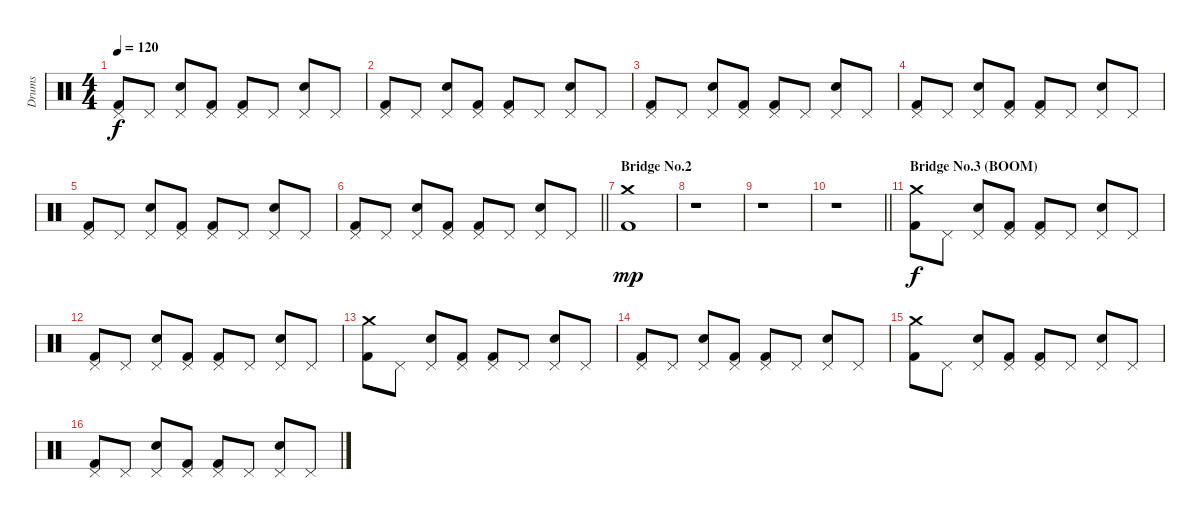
\track ("Drums" "Drums") {instrument percussion}
\staff {score}
\articulation defaults
\ts (4 4)
\tempo 120
\clef neutral
\ks c
("Pedal Hi-Hat (hit)" "Kick (hit) 2").8{dy f} "Pedal Hi-Hat (hit)".8 ("Pedal Hi-Hat (hit)" "Electric Snare (hit)").8 ("Pedal Hi-Hat (hit)" "Kick (hit) 2").8 ("Pedal Hi-Hat (hit)" "Kick (hit) 2").8 "Pedal Hi-Hat (hit)".8 ("Pedal Hi-Hat (hit)" "Electric Snare (hit)").8 "Pedal Hi-Hat (hit)".8 |
("Pedal Hi-Hat (hit)" "Kick (hit) 2").8 "Pedal Hi-Hat (hit)".8 ("Pedal Hi-Hat (hit)" "Electric Snare (hit)").8 ("Pedal Hi-Hat (hit)" "Kick (hit) 2").8 ("Pedal Hi-Hat (hit)" "Kick (hit) 2").8 "Pedal Hi-Hat (hit)".8 ("Pedal Hi-Hat (hit)" "Electric Snare (hit)").8 "Pedal Hi-Hat (hit)".8 |
("Pedal Hi-Hat (hit)" "Kick (hit) 2").8 "Pedal Hi-Hat (hit)".8 ("Pedal Hi-Hat (hit)" "Electric Snare (hit)").8 ("Pedal Hi-Hat (hit)" "Kick (hit) 2").8 ("Pedal Hi-Hat (hit)" "Kick (hit) 2").8 "Pedal Hi-Hat (hit)".8 ("Pedal Hi-Hat (hit)" "Electric Snare (hit)").8 "Pedal Hi-Hat (hit)".8 |
("Pedal Hi-Hat (hit)" "Kick (hit) 2").8 "Pedal Hi-Hat (hit)".8 ("Pedal Hi-Hat (hit)" "Electric Snare (hit)").8 ("Pedal Hi-Hat (hit)" "Kick (hit) 2").8 ("Pedal Hi-Hat (hit)" "Kick (hit) 2").8 "Pedal Hi-Hat (hit)".8 ("Pedal Hi-Hat (hit)" "Electric Snare (hit)").8 "Pedal Hi-Hat (hit)".8 |
("Pedal Hi-Hat (hit)" "Kick (hit) 2").8 "Pedal Hi-Hat (hit)".8 ("Pedal Hi-Hat (hit)" "Electric Snare (hit)").8 ("Pedal Hi-Hat (hit)" "Kick (hit) 2").8 ("Pedal Hi-Hat (hit)" "Kick (hit) 2").8 "Pedal Hi-Hat (hit)".8 ("Pedal Hi-Hat (hit)" "Electric Snare (hit)").8 "Pedal Hi-Hat (hit)".8 |
\barLineRight lightlight
("Pedal Hi-Hat (hit)" "Kick (hit) 2").8 "Pedal Hi-Hat (hit)".8 ("Pedal Hi-Hat (hit)" "Electric Snare (hit)").8 ("Pedal Hi-Hat (hit)" "Kick (hit) 2").8 ("Pedal Hi-Hat (hit)" "Kick (hit) 2").8 "Pedal Hi-Hat (hit)".8 ("Pedal Hi-Hat (hit)" "Electric Snare (hit)").8 "Pedal Hi-Hat (hit)".8 |
\section ("" "Bridge No.2")
("Crash medium (hit)" "Kick (hit) 2").1{dy mp} |
r.1 |
r.1 |
\barLineRight lightlight
r.1 |
\section ("" "Bridge No.3 (BOOM)")
("Crash medium (hit)" "Kick (hit) 2").8{dy f} "Pedal Hi-Hat (hit)".8 ("Pedal Hi-Hat (hit)" "Electric Snare (hit)").8 ("Pedal Hi-Hat (hit)" "Kick (hit) 2").8 ("Pedal Hi-Hat (hit)" "Kick (hit) 2").8 "Pedal Hi-Hat (hit)".8 ("Pedal Hi-Hat (hit)" "Electric Snare (hit)").8 "Pedal Hi-Hat (hit)".8 |
("Pedal Hi-Hat (hit)" "Kick (hit) 2").8 "Pedal Hi-Hat (hit)".8 ("Pedal Hi-Hat (hit)" "Electric Snare (hit)").8 ("Pedal Hi-Hat (hit)" "Kick (hit) 2").8 ("Pedal Hi-Hat (hit)" "Kick (hit) 2").8 "Pedal Hi-Hat (hit)".8 ("Pedal Hi-Hat (hit)" "Electric Snare (hit)").8 "Pedal Hi-Hat (hit)".8 |
("Crash medium (hit)" "Kick (hit) 2").8 "Pedal Hi-Hat (hit)".8 ("Pedal Hi-Hat (hit)" "Electric Snare (hit)").8 ("Pedal Hi-Hat (hit)" "Kick (hit) 2").8 ("Pedal Hi-Hat (hit)" "Kick (hit) 2").8 "Pedal Hi-Hat (hit)".8 ("Pedal Hi-Hat (hit)" "Electric Snare (hit)").8 "Pedal Hi-Hat (hit)".8 |
("Pedal Hi-Hat (hit)" "Kick (hit) 2").8 "Pedal Hi-Hat (hit)".8 ("Pedal Hi-Hat (hit)" "Electric Snare (hit)").8 ("Pedal Hi-Hat (hit)" "Kick (hit) 2").8 ("Pedal Hi-Hat (hit)" "Kick (hit) 2").8 "Pedal Hi-Hat (hit)".8 ("Pedal Hi-Hat (hit)" "Electric Snare (hit)").8 "Pedal Hi-Hat (hit)".8 |
("Crash medium (hit)" "Kick (hit) 2").8 "Pedal Hi-Hat (hit)".8 ("Pedal Hi-Hat (hit)" "Electric Snare (hit)").8 ("Pedal Hi-Hat (hit)" "Kick (hit) 2").8 ("Pedal Hi-Hat (hit)" "Kick (hit) 2").8 "Pedal Hi-Hat (hit)".8 ("Pedal Hi-Hat (hit)" "Electric Snare (hit)").8 "Pedal Hi-Hat (hit)".8 |
("Pedal Hi-Hat (hit)" "Kick (hit) 2").8 "Pedal Hi-Hat (hit)".8 ("Pedal Hi-Hat (hit)" "Electric Snare (hit)").8 ("Pedal Hi-Hat (hit)" "Kick (hit) 2").8 ("Pedal Hi-Hat (hit)" "Kick (hit) 2").8 "Pedal Hi-Hat (hit)".8 ("Pedal Hi-Hat (hit)" "Electric Snare (hit)").8 "Pedal Hi-Hat (hit)".8
